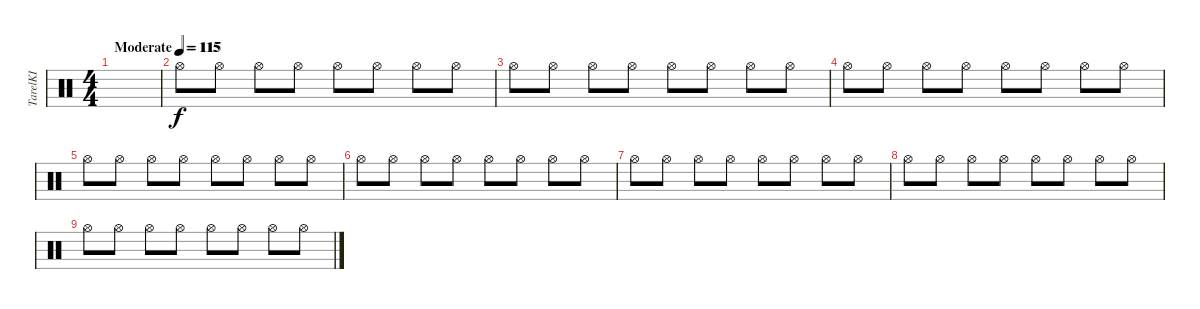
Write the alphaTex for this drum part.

\track ("TarelKI" "TarelKI") {instrument percussion}
\staff {score}
\articulation defaults
\ts (4 4)
\tempo (115 "Moderate")
\tempo 130
\tempo (115 "Moderate")
\clef neutral
\ks c
|
\tempo (115)
"Hi-Hat (open)".8 "Hi-Hat (open)".8 "Hi-Hat (open)".8 "Hi-Hat (open)".8 "Hi-Hat (open)".8 "Hi-Hat (open)".8 "Hi-Hat (open)".8 "Hi-Hat (open)".8 |
"Hi-Hat (open)".8 "Hi-Hat (open)".8 "Hi-Hat (open)".8 "Hi-Hat (open)".8 "Hi-Hat (open)".8 "Hi-Hat (open)".8 "Hi-Hat (open)".8 "Hi-Hat (open)".8 |
"Hi-Hat (open)".8 "Hi-Hat (open)".8 "Hi-Hat (open)".8 "Hi-Hat (open)".8 "Hi-Hat (open)".8 "Hi-Hat (open)".8 "Hi-Hat (open)".8 "Hi-Hat (open)".8 |
"Hi-Hat (open)".8 "Hi-Hat (open)".8 "Hi-Hat (open)".8 "Hi-Hat (open)".8 "Hi-Hat (open)".8 "Hi-Hat (open)".8 "Hi-Hat (open)".8 "Hi-Hat (open)".8 |
"Hi-Hat (open)".8 "Hi-Hat (open)".8 "Hi-Hat (open)".8 "Hi-Hat (open)".8 "Hi-Hat (open)".8 "Hi-Hat (open)".8 "Hi-Hat (open)".8 "Hi-Hat (open)".8 |
"Hi-Hat (open)".8 "Hi-Hat (open)".8 "Hi-Hat (open)".8 "Hi-Hat (open)".8 "Hi-Hat (open)".8 "Hi-Hat (open)".8 "Hi-Hat (open)".8 "Hi-Hat (open)".8 |
"Hi-Hat (open)".8 "Hi-Hat (open)".8 "Hi-Hat (open)".8 "Hi-Hat (open)".8 "Hi-Hat (open)".8 "Hi-Hat (open)".8 "Hi-Hat (open)".8 "Hi-Hat (open)".8 |
"Hi-Hat (open)".8 "Hi-Hat (open)".8 "Hi-Hat (open)".8 "Hi-Hat (open)".8 "Hi-Hat (open)".8 "Hi-Hat (open)".8 "Hi-Hat (open)".8 "Hi-Hat (open)".8
